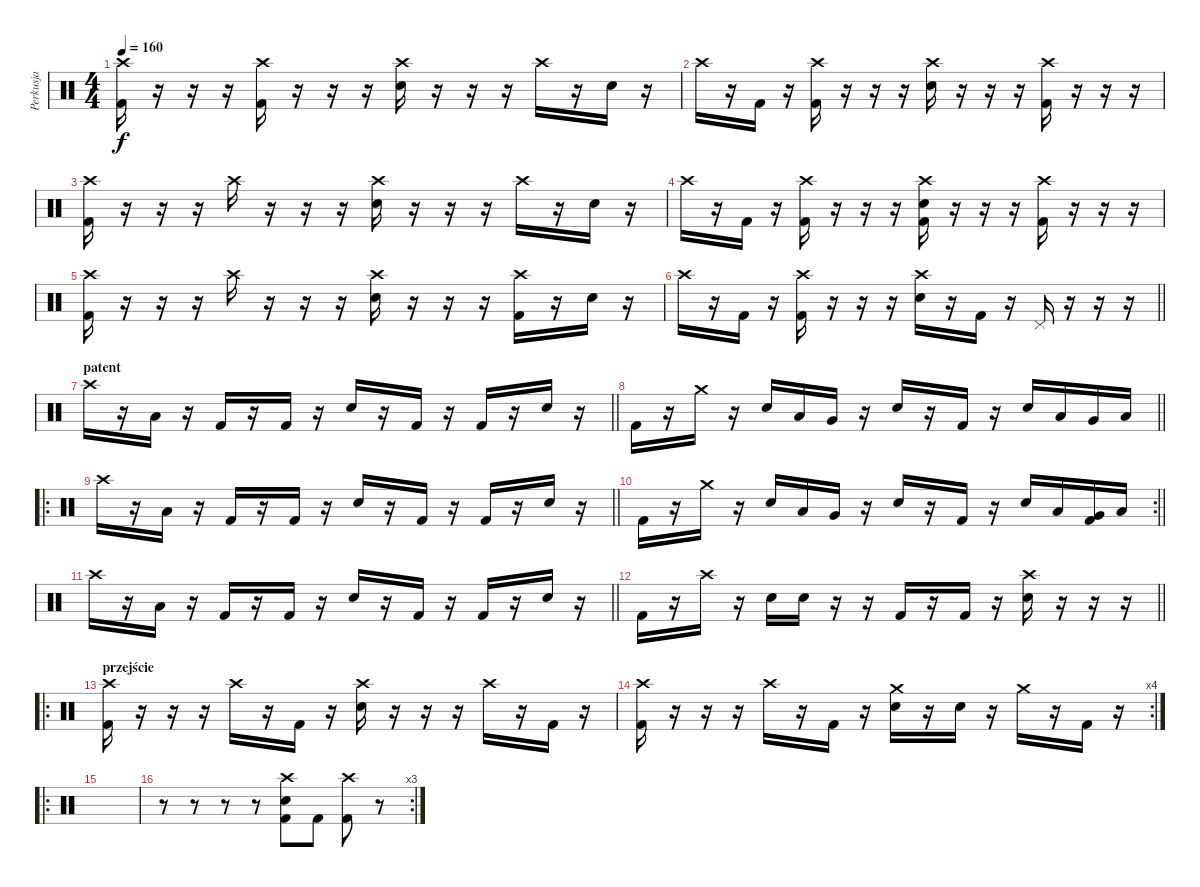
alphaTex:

\track ("Perkusja" "Perkusja") {instrument percussion}
\staff {score}
\articulation defaults
\ts (4 4)
\tempo 160
\clef neutral
\ks c
("Crash high (hit)" "Kick (hit) 2").16{dy f} r.16 r.16 r.16 ("Crash high (hit)" "Kick (hit) 2").16 r.16 r.16 r.16 ("Crash high (hit)" "Electric Snare (hit)").16 r.16 r.16 r.16 "Crash high (hit)".16 r.16 "Electric Snare (hit)".16 r.16 |
"Crash high (hit)".16 r.16 "Kick (hit) 2".16 r.16 ("Crash high (hit)" "Kick (hit) 2").16 r.16 r.16 r.16 ("Crash high (hit)" "Electric Snare (hit)").16 r.16 r.16 r.16 ("Crash high (hit)" "Kick (hit) 2").16 r.16 r.16 r.16 |
("Crash high (hit)" "Kick (hit) 2").16 r.16 r.16 r.16 "Crash high (hit)".16 r.16 r.16 r.16 ("Crash high (hit)" "Electric Snare (hit)").16 r.16 r.16 r.16 "Crash high (hit)".16 r.16 "Electric Snare (hit)".16 r.16 |
"Crash high (hit)".16 r.16 "Kick (hit) 2".16 r.16 ("Crash high (hit)" "Kick (hit) 2").16 r.16 r.16 r.16 ("Crash high (hit)" "Electric Snare (hit)" "Kick (hit) 2").16 r.16 r.16 r.16 ("Crash high (hit)" "Kick (hit) 2").16 r.16 r.16 r.16 |
("Crash high (hit)" "Kick (hit) 2").16 r.16 r.16 r.16 "Crash high (hit)".16 r.16 r.16 r.16 ("Crash high (hit)" "Electric Snare (hit)").16 r.16 r.16 r.16 ("Crash high (hit)" "Kick (hit) 2").16 r.16 "Electric Snare (hit)".16 r.16 |
\barLineRight lightlight "Crash high (hit)".16
r.16 "Kick (hit) 2".16 r.16 ("Crash high (hit)" "Kick (hit) 2").16 r.16 r.16 r.16 ("Crash high (hit)" "Electric Snare (hit)").16 r.16 "Kick (hit) 2".16 r.16 "Pedal Hi-Hat (hit)".16 r.16 r.16 r.16 |
\section ("" "patent")
\barLineRight lightlight "Crash high (hit)".16
r.16 "Low Floor Tom (hit)".16 r.16 "Kick (hit) 2".16 r.16 "Kick (hit) 2".16 r.16 "Electric Snare (hit)".16 r.16 "Kick (hit) 2".16 r.16 "Kick (hit) 2".16 r.16 "Electric Snare (hit)".16 r.16 |
\barLineRight lightlight "Kick (hit) 2".16
r.16 "Crash medium (hit)".16 r.16 "Electric Snare (hit)".16 "Low Tom (hit)".16 "Very Low Tom (hit)".16 r.16 "Electric Snare (hit)".16 r.16 "Kick (hit) 2".16 r.16 "Electric Snare (hit)".16 "Low Tom (hit)".16 "Very Low Tom (hit)".16 "Low Floor Tom (hit)".16 |
\ro
\barLineRight lightlight "Crash high (hit)".16
r.16 "Low Floor Tom (hit)".16 r.16 "Kick (hit) 2".16 r.16 "Kick (hit) 2".16 r.16 "Electric Snare (hit)".16 r.16 "Kick (hit) 2".16 r.16 "Kick (hit) 2".16 r.16 "Electric Snare (hit)".16 r.16 |
\rc 2
\barLineRight lightlight "Kick (hit) 2".16
r.16 "Crash medium (hit)".16 r.16 "Electric Snare (hit)".16 "Low Tom (hit)".16 "Very Low Tom (hit)".16 r.16 "Electric Snare (hit)".16 r.16 "Kick (hit) 2".16 r.16 "Electric Snare (hit)".16 "Low Tom (hit)".16 ("Very Low Tom (hit)" "Kick (hit) 2").16 "Low Floor Tom (hit)".16 |
\barLineRight lightlight "Crash high (hit)".16
r.16 "Low Floor Tom (hit)".16 r.16 "Kick (hit) 2".16 r.16 "Kick (hit) 2".16 r.16 "Electric Snare (hit)".16 r.16 "Kick (hit) 2".16 r.16 "Kick (hit) 2".16 r.16 "Electric Snare (hit)".16 r.16 |
\barLineRight lightlight "Kick (hit) 2".16
r.16 "Crash high (hit)".16 r.16 "Electric Snare (hit)".16 "Electric Snare (hit)".16 r.16 r.16 "Kick (hit) 2".16 r.16 "Kick (hit) 2".16 r.16 ("Crash high (hit)" "Electric Snare (hit)").16 r.16 r.16 r.16 |
\ro
\section ("" "przejście")
("Crash high (hit)" "Kick (hit) 2").16 r.16 r.16 r.16 "Crash high (hit)".16 r.16 "Kick (hit) 2".16 r.16 ("Crash high (hit)" "Electric Snare (hit)").16 r.16 r.16 r.16 "Crash high (hit)".16 r.16 "Kick (hit) 2".16 r.16 |
\rc 4
("Crash high (hit)" "Kick (hit) 2").16 r.16 r.16 r.16 "Crash high (hit)".16 r.16 "Kick (hit) 2".16 r.16 ("Crash medium (hit)" "Electric Snare (hit)").16 r.16 "Electric Snare (hit)".16 r.16 "Crash medium (hit)".16 r.16 "Kick (hit) 2".16 r.16 |
\ro
|
\rc 3
r.8 r.8 r.8 r.8 ("Crash high (hit)" "Electric Snare (hit)" "Kick (hit) 2").8 "Kick (hit) 2".8 ("Crash high (hit)" "Kick (hit) 2").8 r.8
